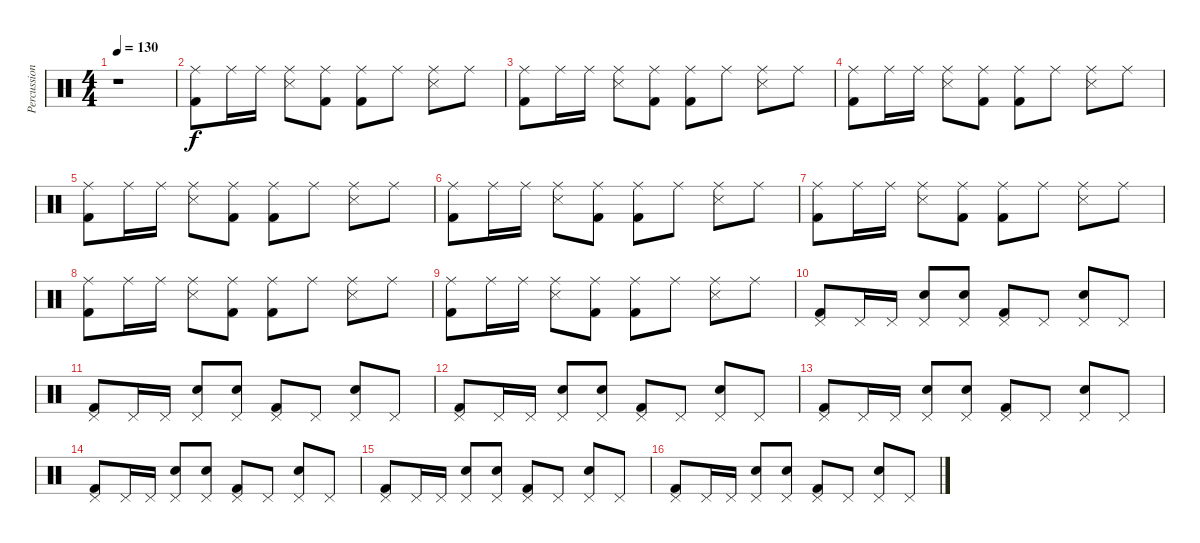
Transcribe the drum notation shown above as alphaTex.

\track ("Percussion" "Percussion") {instrument percussion}
\staff {score}
\articulation defaults
\ts (4 4)
\tempo 130
\clef neutral
\ks c
r.1{dy f} |
("Ride (middle)" "Kick (hit) 2").8 "Ride (middle)".16 "Ride (middle)".16 ("Ride (middle)" "Snare (side stick) 3").8 ("Ride (middle)" "Kick (hit) 2").8 ("Ride (middle)" "Kick (hit) 2").8 "Ride (middle)".8 ("Ride (middle)" "Snare (side stick) 3").8 "Ride (middle)".8 |
("Ride (middle)" "Kick (hit) 2").8 "Ride (middle)".16 "Ride (middle)".16 ("Ride (middle)" "Snare (side stick) 3").8 ("Ride (middle)" "Kick (hit) 2").8 ("Ride (middle)" "Kick (hit) 2").8 "Ride (middle)".8 ("Ride (middle)" "Snare (side stick) 3").8 "Ride (middle)".8 |
("Ride (middle)" "Kick (hit) 2").8 "Ride (middle)".16 "Ride (middle)".16 ("Ride (middle)" "Snare (side stick) 3").8 ("Ride (middle)" "Kick (hit) 2").8 ("Ride (middle)" "Kick (hit) 2").8 "Ride (middle)".8 ("Ride (middle)" "Snare (side stick) 3").8 "Ride (middle)".8 |
("Ride (middle)" "Kick (hit) 2").8 "Ride (middle)".16 "Ride (middle)".16 ("Ride (middle)" "Snare (side stick) 3").8 ("Ride (middle)" "Kick (hit) 2").8 ("Ride (middle)" "Kick (hit) 2").8 "Ride (middle)".8 ("Ride (middle)" "Snare (side stick) 3").8 "Ride (middle)".8 |
("Ride (middle)" "Kick (hit) 2").8 "Ride (middle)".16 "Ride (middle)".16 ("Ride (middle)" "Snare (side stick) 3").8 ("Ride (middle)" "Kick (hit) 2").8 ("Ride (middle)" "Kick (hit) 2").8 "Ride (middle)".8 ("Ride (middle)" "Snare (side stick) 3").8 "Ride (middle)".8 |
("Ride (middle)" "Kick (hit) 2").8 "Ride (middle)".16 "Ride (middle)".16 ("Ride (middle)" "Snare (side stick) 3").8 ("Ride (middle)" "Kick (hit) 2").8 ("Ride (middle)" "Kick (hit) 2").8 "Ride (middle)".8 ("Ride (middle)" "Snare (side stick) 3").8 "Ride (middle)".8 |
("Ride (middle)" "Kick (hit) 2").8 "Ride (middle)".16 "Ride (middle)".16 ("Ride (middle)" "Snare (side stick) 3").8 ("Ride (middle)" "Kick (hit) 2").8 ("Ride (middle)" "Kick (hit) 2").8 "Ride (middle)".8 ("Ride (middle)" "Snare (side stick) 3").8 "Ride (middle)".8 |
("Ride (middle)" "Kick (hit) 2").8 "Ride (middle)".16 "Ride (middle)".16 ("Ride (middle)" "Snare (side stick) 3").8 ("Ride (middle)" "Kick (hit) 2").8 ("Ride (middle)" "Kick (hit) 2").8 "Ride (middle)".8 ("Ride (middle)" "Snare (side stick) 3").8 "Ride (middle)".8 |
("Pedal Hi-Hat (hit)" "Kick (hit) 2").8 "Pedal Hi-Hat (hit)".16 "Pedal Hi-Hat (hit)".16 ("Pedal Hi-Hat (hit)" "Snare (hit) 2").8 ("Pedal Hi-Hat (hit)" "Snare (hit) 2").8 ("Pedal Hi-Hat (hit)" "Kick (hit) 2").8 "Pedal Hi-Hat (hit)".8 ("Pedal Hi-Hat (hit)" "Snare (hit) 2").8 "Pedal Hi-Hat (hit)".8 |
("Pedal Hi-Hat (hit)" "Kick (hit) 2").8 "Pedal Hi-Hat (hit)".16 "Pedal Hi-Hat (hit)".16 ("Pedal Hi-Hat (hit)" "Snare (hit) 2").8 ("Pedal Hi-Hat (hit)" "Snare (hit) 2").8 ("Pedal Hi-Hat (hit)" "Kick (hit) 2").8 "Pedal Hi-Hat (hit)".8 ("Pedal Hi-Hat (hit)" "Snare (hit) 2").8 "Pedal Hi-Hat (hit)".8 |
("Pedal Hi-Hat (hit)" "Kick (hit) 2").8 "Pedal Hi-Hat (hit)".16 "Pedal Hi-Hat (hit)".16 ("Pedal Hi-Hat (hit)" "Snare (hit) 2").8 ("Pedal Hi-Hat (hit)" "Snare (hit) 2").8 ("Pedal Hi-Hat (hit)" "Kick (hit) 2").8 "Pedal Hi-Hat (hit)".8 ("Pedal Hi-Hat (hit)" "Snare (hit) 2").8 "Pedal Hi-Hat (hit)".8 |
("Pedal Hi-Hat (hit)" "Kick (hit) 2").8 "Pedal Hi-Hat (hit)".16 "Pedal Hi-Hat (hit)".16 ("Pedal Hi-Hat (hit)" "Snare (hit) 2").8 ("Pedal Hi-Hat (hit)" "Snare (hit) 2").8 ("Pedal Hi-Hat (hit)" "Kick (hit) 2").8 "Pedal Hi-Hat (hit)".8 ("Pedal Hi-Hat (hit)" "Snare (hit) 2").8 "Pedal Hi-Hat (hit)".8 |
("Pedal Hi-Hat (hit)" "Kick (hit) 2").8 "Pedal Hi-Hat (hit)".16 "Pedal Hi-Hat (hit)".16 ("Pedal Hi-Hat (hit)" "Snare (hit) 2").8 ("Pedal Hi-Hat (hit)" "Snare (hit) 2").8 ("Pedal Hi-Hat (hit)" "Kick (hit) 2").8 "Pedal Hi-Hat (hit)".8 ("Pedal Hi-Hat (hit)" "Snare (hit) 2").8 "Pedal Hi-Hat (hit)".8 |
("Pedal Hi-Hat (hit)" "Kick (hit) 2").8 "Pedal Hi-Hat (hit)".16 "Pedal Hi-Hat (hit)".16 ("Pedal Hi-Hat (hit)" "Snare (hit) 2").8 ("Pedal Hi-Hat (hit)" "Snare (hit) 2").8 ("Pedal Hi-Hat (hit)" "Kick (hit) 2").8 "Pedal Hi-Hat (hit)".8 ("Pedal Hi-Hat (hit)" "Snare (hit) 2").8 "Pedal Hi-Hat (hit)".8 |
("Pedal Hi-Hat (hit)" "Kick (hit) 2").8 "Pedal Hi-Hat (hit)".16 "Pedal Hi-Hat (hit)".16 ("Pedal Hi-Hat (hit)" "Snare (hit) 2").8 ("Pedal Hi-Hat (hit)" "Snare (hit) 2").8 ("Pedal Hi-Hat (hit)" "Kick (hit) 2").8 "Pedal Hi-Hat (hit)".8 ("Pedal Hi-Hat (hit)" "Snare (hit) 2").8 "Pedal Hi-Hat (hit)".8
